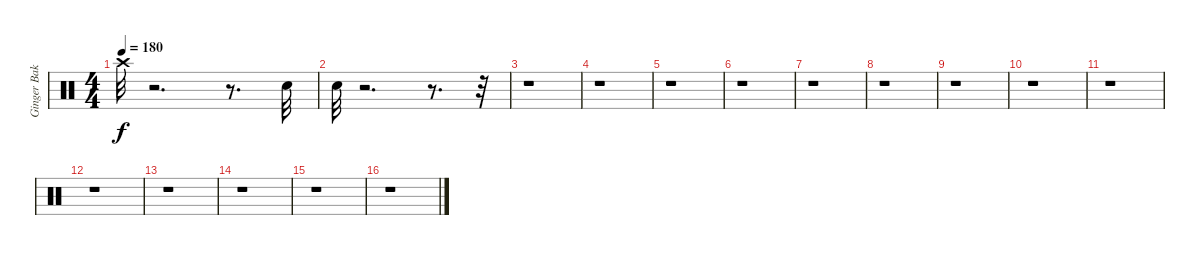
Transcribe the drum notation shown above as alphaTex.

\track ("Ginger Baker" "Ginger Bak") {instrument percussion}
\staff {score}
\articulation defaults
\ts (4 4)
\tempo 180
\clef neutral
\ks c "Crash high (hit)".32{dy f}
r.2{d} r.8{d} "Snare (hit) 2".32 |
"Snare (hit) 2".32 r.2{d} r.8{d} r.32 |
r.1 |
r.1 |
r.1 |
r.1 |
r.1 |
r.1 |
r.1 |
r.1 |
r.1 |
r.1 |
r.1 |
r.1 |
r.1 |
r.1
